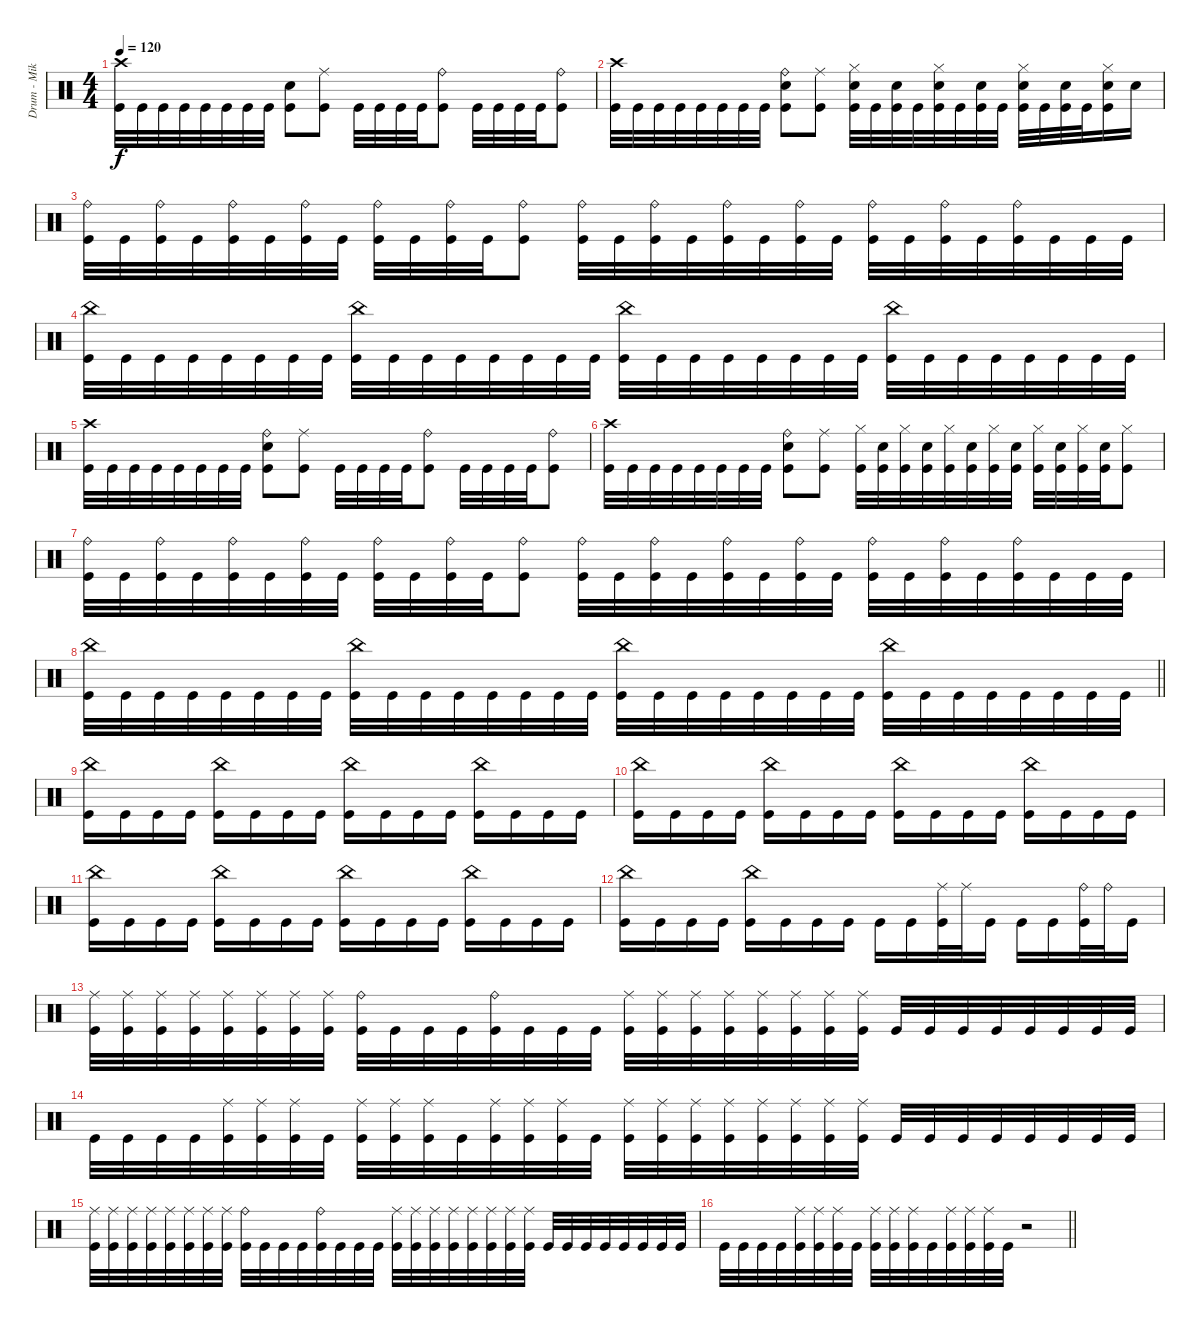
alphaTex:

\track ("Drum - Mike Collins" "Drum - Mik") {instrument percussion}
\staff {score}
\articulation defaults
\ts (4 4)
\tempo 120
\clef neutral
\ks c
("Crash high (hit)" "Kick (hit)").32{dy f} "Kick (hit)".32 "Kick (hit)".32 "Kick (hit)".32 "Kick (hit)".32 "Kick (hit)".32 "Kick (hit)".32 "Kick (hit)".32 ("Electric Snare (hit)" "Kick (hit)").8 ("Ride (middle)" "Kick (hit)").8 "Kick (hit)".32 "Kick (hit)".32 "Kick (hit)".32 "Kick (hit)".32 ("Ride (bell)" "Kick (hit)").8 "Kick (hit)".32 "Kick (hit)".32 "Kick (hit)".32 "Kick (hit)".32 ("Ride (bell)" "Kick (hit)").8 |
("Crash high (hit)" "Kick (hit)").32 "Kick (hit)".32 "Kick (hit)".32 "Kick (hit)".32 "Kick (hit)".32 "Kick (hit)".32 "Kick (hit)".32 "Kick (hit)".32 ("Ride (bell)" "Electric Snare (hit)" "Kick (hit)").8 ("Ride (middle)" "Kick (hit)").8 ("Hi-Hat (closed)" "Electric Snare (hit)" "Kick (hit)").32 "Kick (hit)".32 ("Electric Snare (hit)" "Kick (hit)").32 "Kick (hit)".32 ("Hi-Hat (closed)" "Electric Snare (hit)" "Kick (hit)").32 "Kick (hit)".32 ("Electric Snare (hit)" "Kick (hit)").32 "Kick (hit)".32 ("Hi-Hat (closed)" "Electric Snare (hit)" "Kick (hit)").32 "Kick (hit)".32 ("Electric Snare (hit)" "Kick (hit)").32 "Kick (hit)".32 ("Hi-Hat (closed)" "Electric Snare (hit)" "Kick (hit)").16 "Electric Snare (hit)".16 |
("Ride (bell)" "Kick (hit)").32 "Kick (hit)".32 ("Ride (bell)" "Kick (hit)").32 "Kick (hit)".32 ("Ride (bell)" "Kick (hit)").32 "Kick (hit)".32 ("Ride (bell)" "Kick (hit)").32 "Kick (hit)".32 ("Ride (bell)" "Kick (hit)").32 "Kick (hit)".32 ("Ride (bell)" "Kick (hit)").32 "Kick (hit)".32 ("Ride (bell)" "Kick (hit)").8 ("Ride (bell)" "Kick (hit)").32 "Kick (hit)".32 ("Ride (bell)" "Kick (hit)").32 "Kick (hit)".32 ("Ride (bell)" "Kick (hit)").32 "Kick (hit)".32 ("Ride (bell)" "Kick (hit)").32 "Kick (hit)".32 ("Ride (bell)" "Kick (hit)").32 "Kick (hit)".32 ("Ride (bell)" "Kick (hit)").32 "Kick (hit)".32 ("Ride (bell)" "Kick (hit)").32 "Kick (hit)".32 "Kick (hit)".32 "Kick (hit)".32 |
("China (hit)" "Kick (hit)").32 "Kick (hit)".32 "Kick (hit)".32 "Kick (hit)".32 "Kick (hit)".32 "Kick (hit)".32 "Kick (hit)".32 "Kick (hit)".32 ("China (hit)" "Kick (hit)").32 "Kick (hit)".32 "Kick (hit)".32 "Kick (hit)".32 "Kick (hit)".32 "Kick (hit)".32 "Kick (hit)".32 "Kick (hit)".32 ("China (hit)" "Kick (hit)").32 "Kick (hit)".32 "Kick (hit)".32 "Kick (hit)".32 "Kick (hit)".32 "Kick (hit)".32 "Kick (hit)".32 "Kick (hit)".32 ("China (hit)" "Kick (hit)").32 "Kick (hit)".32 "Kick (hit)".32 "Kick (hit)".32 "Kick (hit)".32 "Kick (hit)".32 "Kick (hit)".32 "Kick (hit)".32 |
("Crash high (hit)" "Kick (hit)").32 "Kick (hit)".32 "Kick (hit)".32 "Kick (hit)".32 "Kick (hit)".32 "Kick (hit)".32 "Kick (hit)".32 "Kick (hit)".32 ("Ride (bell)" "Electric Snare (hit)" "Kick (hit)").8 ("Ride (middle)" "Kick (hit)").8 "Kick (hit)".32 "Kick (hit)".32 "Kick (hit)".32 "Kick (hit)".32 ("Ride (bell)" "Kick (hit)").8 "Kick (hit)".32 "Kick (hit)".32 "Kick (hit)".32 "Kick (hit)".32 ("Ride (bell)" "Kick (hit)").8 |
("Crash high (hit)" "Kick (hit)").32 "Kick (hit)".32 "Kick (hit)".32 "Kick (hit)".32 "Kick (hit)".32 "Kick (hit)".32 "Kick (hit)".32 "Kick (hit)".32 ("Ride (bell)" "Electric Snare (hit)" "Kick (hit)").8 ("Ride (middle)" "Kick (hit)").8 ("Hi-Hat (closed)" "Kick (hit)").32 ("Electric Snare (hit)" "Kick (hit)").32 ("Hi-Hat (closed)" "Kick (hit)").32 ("Electric Snare (hit)" "Kick (hit)").32 ("Hi-Hat (closed)" "Kick (hit)").32 ("Electric Snare (hit)" "Kick (hit)").32 ("Hi-Hat (closed)" "Kick (hit)").32 ("Electric Snare (hit)" "Kick (hit)").32 ("Hi-Hat (closed)" "Kick (hit)").32 ("Electric Snare (hit)" "Kick (hit)").32 ("Hi-Hat (closed)" "Kick (hit)").32 ("Electric Snare (hit)" "Kick (hit)").32 ("Hi-Hat (closed)" "Kick (hit)").8 |
("Ride (bell)" "Kick (hit)").32 "Kick (hit)".32 ("Ride (bell)" "Kick (hit)").32 "Kick (hit)".32 ("Ride (bell)" "Kick (hit)").32 "Kick (hit)".32 ("Ride (bell)" "Kick (hit)").32 "Kick (hit)".32 ("Ride (bell)" "Kick (hit)").32 "Kick (hit)".32 ("Ride (bell)" "Kick (hit)").32 "Kick (hit)".32 ("Ride (bell)" "Kick (hit)").8 ("Ride (bell)" "Kick (hit)").32 "Kick (hit)".32 ("Ride (bell)" "Kick (hit)").32 "Kick (hit)".32 ("Ride (bell)" "Kick (hit)").32 "Kick (hit)".32 ("Ride (bell)" "Kick (hit)").32 "Kick (hit)".32 ("Ride (bell)" "Kick (hit)").32 "Kick (hit)".32 ("Ride (bell)" "Kick (hit)").32 "Kick (hit)".32 ("Ride (bell)" "Kick (hit)").32 "Kick (hit)".32 "Kick (hit)".32 "Kick (hit)".32 |
\barLineRight lightlight
("China (hit)" "Kick (hit)").32 "Kick (hit)".32 "Kick (hit)".32 "Kick (hit)".32 "Kick (hit)".32 "Kick (hit)".32 "Kick (hit)".32 "Kick (hit)".32 ("China (hit)" "Kick (hit)").32 "Kick (hit)".32 "Kick (hit)".32 "Kick (hit)".32 "Kick (hit)".32 "Kick (hit)".32 "Kick (hit)".32 "Kick (hit)".32 ("China (hit)" "Kick (hit)").32 "Kick (hit)".32 "Kick (hit)".32 "Kick (hit)".32 "Kick (hit)".32 "Kick (hit)".32 "Kick (hit)".32 "Kick (hit)".32 ("China (hit)" "Kick (hit)").32 "Kick (hit)".32 "Kick (hit)".32 "Kick (hit)".32 "Kick (hit)".32 "Kick (hit)".32 "Kick (hit)".32 "Kick (hit)".32 |
("China (hit)" "Kick (hit)").16 "Kick (hit)".16 "Kick (hit)".16 "Kick (hit)".16 ("China (hit)" "Kick (hit)").16 "Kick (hit)".16 "Kick (hit)".16 "Kick (hit)".16 ("China (hit)" "Kick (hit)").16 "Kick (hit)".16 "Kick (hit)".16 "Kick (hit)".16 ("China (hit)" "Kick (hit)").16 "Kick (hit)".16 "Kick (hit)".16 "Kick (hit)".16 |
("China (hit)" "Kick (hit)").16 "Kick (hit)".16 "Kick (hit)".16 "Kick (hit)".16 ("China (hit)" "Kick (hit)").16 "Kick (hit)".16 "Kick (hit)".16 "Kick (hit)".16 ("China (hit)" "Kick (hit)").16 "Kick (hit)".16 "Kick (hit)".16 "Kick (hit)".16 ("China (hit)" "Kick (hit)").16 "Kick (hit)".16 "Kick (hit)".16 "Kick (hit)".16 |
("China (hit)" "Kick (hit)").16 "Kick (hit)".16 "Kick (hit)".16 "Kick (hit)".16 ("China (hit)" "Kick (hit)").16 "Kick (hit)".16 "Kick (hit)".16 "Kick (hit)".16 ("China (hit)" "Kick (hit)").16 "Kick (hit)".16 "Kick (hit)".16 "Kick (hit)".16 ("China (hit)" "Kick (hit)").16 "Kick (hit)".16 "Kick (hit)".16 "Kick (hit)".16 |
("China (hit)" "Kick (hit)").16 "Kick (hit)".16 "Kick (hit)".16 "Kick (hit)".16 ("China (hit)" "Kick (hit)").16 "Kick (hit)".16 "Kick (hit)".16 "Kick (hit)".16 "Kick (hit)".16 "Kick (hit)".16 ("Ride (middle)" "Kick (hit)").32 "Ride (middle)".32 "Kick (hit)".16 "Kick (hit)".16 "Kick (hit)".16 ("Ride (bell)" "Kick (hit)").32 "Ride (bell)".32 "Kick (hit)".16 |
("Ride (middle)" "Kick (hit)").32 ("Ride (middle)" "Kick (hit)").32 ("Ride (middle)" "Kick (hit)").32 ("Ride (middle)" "Kick (hit)").32 ("Ride (middle)" "Kick (hit)").32 ("Ride (middle)" "Kick (hit)").32 ("Ride (middle)" "Kick (hit)").32 ("Ride (middle)" "Kick (hit)").32 ("Ride (bell)" "Kick (hit)").32 "Kick (hit)".32 "Kick (hit)".32 "Kick (hit)".32 ("Ride (bell)" "Kick (hit)").32 "Kick (hit)".32 "Kick (hit)".32 "Kick (hit)".32 ("Ride (middle)" "Kick (hit)").32 ("Ride (middle)" "Kick (hit)").32 ("Ride (middle)" "Kick (hit)").32 ("Ride (middle)" "Kick (hit)").32 ("Ride (middle)" "Kick (hit)").32 ("Ride (middle)" "Kick (hit)").32 ("Ride (middle)" "Kick (hit)").32 ("Ride (middle)" "Kick (hit)").32 "Kick (hit)".32 "Kick (hit)".32 "Kick (hit)".32 "Kick (hit)".32 "Kick (hit)".32 "Kick (hit)".32 "Kick (hit)".32 "Kick (hit)".32 |
"Kick (hit)".32 "Kick (hit)".32 "Kick (hit)".32 "Kick (hit)".32 ("Ride (middle)" "Kick (hit)").32 ("Ride (middle)" "Kick (hit)").32 ("Ride (middle)" "Kick (hit)").32 "Kick (hit)".32 ("Ride (middle)" "Kick (hit)").32 ("Ride (middle)" "Kick (hit)").32 ("Ride (middle)" "Kick (hit)").32 "Kick (hit)".32 ("Ride (middle)" "Kick (hit)").32 ("Ride (middle)" "Kick (hit)").32 ("Ride (middle)" "Kick (hit)").32 "Kick (hit)".32 ("Ride (middle)" "Kick (hit)").32 ("Ride (middle)" "Kick (hit)").32 ("Ride (middle)" "Kick (hit)").32 ("Ride (middle)" "Kick (hit)").32 ("Ride (middle)" "Kick (hit)").32 ("Ride (middle)" "Kick (hit)").32 ("Ride (middle)" "Kick (hit)").32 ("Ride (middle)" "Kick (hit)").32 "Kick (hit)".32 "Kick (hit)".32 "Kick (hit)".32 "Kick (hit)".32 "Kick (hit)".32 "Kick (hit)".32 "Kick (hit)".32 "Kick (hit)".32 |
("Ride (middle)" "Kick (hit)").32 ("Ride (middle)" "Kick (hit)").32 ("Ride (middle)" "Kick (hit)").32 ("Ride (middle)" "Kick (hit)").32 ("Ride (middle)" "Kick (hit)").32 ("Ride (middle)" "Kick (hit)").32 ("Ride (middle)" "Kick (hit)").32 ("Ride (middle)" "Kick (hit)").32 ("Ride (bell)" "Kick (hit)").32 "Kick (hit)".32 "Kick (hit)".32 "Kick (hit)".32 ("Ride (bell)" "Kick (hit)").32 "Kick (hit)".32 "Kick (hit)".32 "Kick (hit)".32 ("Ride (middle)" "Kick (hit)").32 ("Ride (middle)" "Kick (hit)").32 ("Ride (middle)" "Kick (hit)").32 ("Ride (middle)" "Kick (hit)").32 ("Ride (middle)" "Kick (hit)").32 ("Ride (middle)" "Kick (hit)").32 ("Ride (middle)" "Kick (hit)").32 ("Ride (middle)" "Kick (hit)").32 "Kick (hit)".32 "Kick (hit)".32 "Kick (hit)".32 "Kick (hit)".32 "Kick (hit)".32 "Kick (hit)".32 "Kick (hit)".32 "Kick (hit)".32 |
\barLineRight lightlight "Kick (hit)".32 "Kick (hit)".32 "Kick (hit)".32 "Kick (hit)".32
("Ride (middle)" "Kick (hit)").32 ("Ride (middle)" "Kick (hit)").32 ("Ride (middle)" "Kick (hit)").32 "Kick (hit)".32 ("Ride (middle)" "Kick (hit)").32 ("Ride (middle)" "Kick (hit)").32 ("Ride (middle)" "Kick (hit)").32 "Kick (hit)".32 ("Ride (middle)" "Kick (hit)").32 ("Ride (middle)" "Kick (hit)").32 ("Ride (middle)" "Kick (hit)").32 "Kick (hit)".32 r.2
